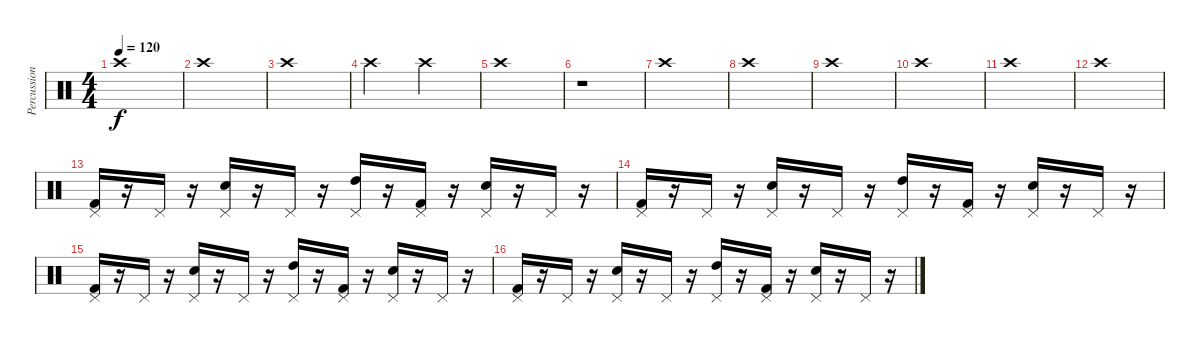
\track ("Percussion" "Percussion") {instrument percussion}
\staff {score}
\articulation defaults
\ts (4 4)
\tempo 120
\clef neutral
\ks c "Crash high (hit)".1{dy f}
|
"Crash high (hit)".1 |
"Crash high (hit)".1 |
"Crash high (hit)".2 "Crash high (hit)".2 |
"Crash high (hit)".1 |
r.1 |
"Crash high (hit)".1 |
"Crash high (hit)".1 |
"Crash high (hit)".1 |
"Crash high (hit)".1 |
"Crash high (hit)".1 |
"Crash high (hit)".1 |
("Pedal Hi-Hat (hit)" "Kick (hit) 2").16 r.16 "Pedal Hi-Hat (hit)".16 r.16 ("Pedal Hi-Hat (hit)" "Snare (hit) 2").16 r.16 "Pedal Hi-Hat (hit)".16 r.16 ("Pedal Hi-Hat (hit)" "High Tom (hit)").16 r.16 ("Pedal Hi-Hat (hit)" "Kick (hit) 2").16 r.16 ("Pedal Hi-Hat (hit)" "Snare (hit) 2").16 r.16 "Pedal Hi-Hat (hit)".16 r.16 |
("Pedal Hi-Hat (hit)" "Kick (hit) 2").16 r.16 "Pedal Hi-Hat (hit)".16 r.16 ("Pedal Hi-Hat (hit)" "Snare (hit) 2").16 r.16 "Pedal Hi-Hat (hit)".16 r.16 ("Pedal Hi-Hat (hit)" "High Tom (hit)").16 r.16 ("Pedal Hi-Hat (hit)" "Kick (hit) 2").16 r.16 ("Pedal Hi-Hat (hit)" "Snare (hit) 2").16 r.16 "Pedal Hi-Hat (hit)".16 r.16 |
("Pedal Hi-Hat (hit)" "Kick (hit) 2").16 r.16 "Pedal Hi-Hat (hit)".16 r.16 ("Pedal Hi-Hat (hit)" "Snare (hit) 2").16 r.16 "Pedal Hi-Hat (hit)".16 r.16 ("Pedal Hi-Hat (hit)" "High Tom (hit)").16 r.16 ("Pedal Hi-Hat (hit)" "Kick (hit) 2").16 r.16 ("Pedal Hi-Hat (hit)" "Snare (hit) 2").16 r.16 "Pedal Hi-Hat (hit)".16 r.16 |
("Pedal Hi-Hat (hit)" "Kick (hit) 2").16 r.16 "Pedal Hi-Hat (hit)".16 r.16 ("Pedal Hi-Hat (hit)" "Snare (hit) 2").16 r.16 "Pedal Hi-Hat (hit)".16 r.16 ("Pedal Hi-Hat (hit)" "High Tom (hit)").16 r.16 ("Pedal Hi-Hat (hit)" "Kick (hit) 2").16 r.16 ("Pedal Hi-Hat (hit)" "Snare (hit) 2").16 r.16 "Pedal Hi-Hat (hit)".16 r.16
